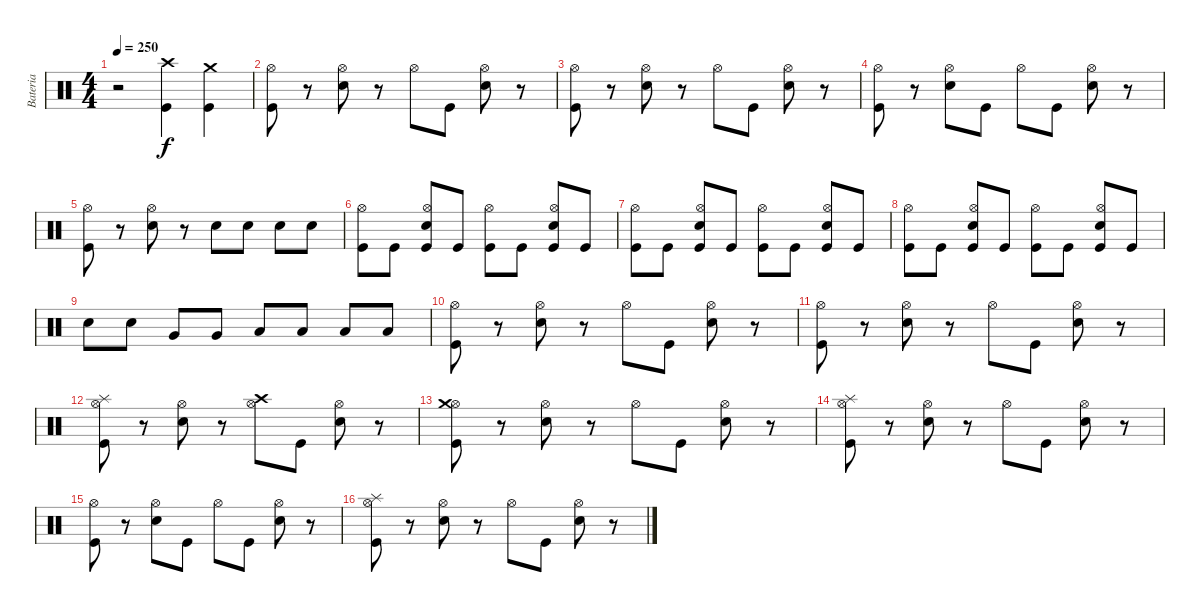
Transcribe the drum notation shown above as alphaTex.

\track ("Bateria" "Bateria") {instrument percussion}
\staff {score}
\articulation defaults
\ts (4 4)
\tempo 250
\clef neutral
\ks c
r.2{dy f} ("Kick (hit)" "Crash high (hit)").4 ("Kick (hit)" "Crash medium (hit)").4 |
("Kick (hit)" "Hi-Hat (open)").8 r.8 ("Electric Snare (hit)" "Hi-Hat (open)").8 r.8 "Hi-Hat (open)".8 "Kick (hit)".8 ("Electric Snare (hit)" "Hi-Hat (open)").8 r.8 |
("Kick (hit)" "Hi-Hat (open)").8 r.8 ("Electric Snare (hit)" "Hi-Hat (open)").8 r.8 "Hi-Hat (open)".8 "Kick (hit)".8 ("Electric Snare (hit)" "Hi-Hat (open)").8 r.8 |
("Kick (hit)" "Hi-Hat (open)").8 r.8 ("Electric Snare (hit)" "Hi-Hat (open)").8 "Kick (hit)".8 "Hi-Hat (open)".8 "Kick (hit)".8 ("Electric Snare (hit)" "Hi-Hat (open)").8 r.8 |
("Kick (hit)" "Hi-Hat (open)").8 r.8 ("Electric Snare (hit)" "Hi-Hat (open)").8 r.8 "Electric Snare (hit)".8 "Electric Snare (hit)".8 "Electric Snare (hit)".8 "Electric Snare (hit)".8 |
("Kick (hit)" "Hi-Hat (open)").8 "Kick (hit)".8 ("Kick (hit)" "Electric Snare (hit)" "Hi-Hat (open)").8 "Kick (hit)".8 ("Kick (hit)" "Hi-Hat (open)").8 "Kick (hit)".8 ("Kick (hit)" "Electric Snare (hit)" "Hi-Hat (open)").8 "Kick (hit)".8 |
("Kick (hit)" "Hi-Hat (open)").8 "Kick (hit)".8 ("Kick (hit)" "Electric Snare (hit)" "Hi-Hat (open)").8 "Kick (hit)".8 ("Kick (hit)" "Hi-Hat (open)").8 "Kick (hit)".8 ("Kick (hit)" "Electric Snare (hit)" "Hi-Hat (open)").8 "Kick (hit)".8 |
("Kick (hit)" "Hi-Hat (open)").8 "Kick (hit)".8 ("Kick (hit)" "Electric Snare (hit)" "Hi-Hat (open)").8 "Kick (hit)".8 ("Kick (hit)" "Hi-Hat (open)").8 "Kick (hit)".8 ("Kick (hit)" "Electric Snare (hit)" "Hi-Hat (open)").8 "Kick (hit)".8 |
"Electric Snare (hit)".8 "Electric Snare (hit)".8 "Very Low Tom (hit)".8 "Very Low Tom (hit)".8 "Low Floor Tom (hit)".8 "Low Floor Tom (hit)".8 "Low Tom (hit)".8 "Low Tom (hit)".8 |
("Kick (hit)" "Hi-Hat (open)").8 r.8 ("Electric Snare (hit)" "Hi-Hat (open)").8 r.8 "Hi-Hat (open)".8 "Kick (hit)".8 ("Electric Snare (hit)" "Hi-Hat (open)").8 r.8 |
("Kick (hit)" "Hi-Hat (open)").8 r.8 ("Electric Snare (hit)" "Hi-Hat (open)").8 r.8 "Hi-Hat (open)".8 "Kick (hit)".8 ("Electric Snare (hit)" "Hi-Hat (open)").8 r.8 |
("Kick (hit)" "Hi-Hat (open)" "Splash (hit)").8 r.8 ("Electric Snare (hit)" "Hi-Hat (open)").8 r.8 ("Hi-Hat (open)" "Crash high (hit)").8 "Kick (hit)".8 ("Electric Snare (hit)" "Hi-Hat (open)").8 r.8 |
("Kick (hit)" "Hi-Hat (open)" "Crash medium (hit)").8 r.8 ("Electric Snare (hit)" "Hi-Hat (open)").8 r.8 "Hi-Hat (open)".8 "Kick (hit)".8 ("Electric Snare (hit)" "Hi-Hat (open)").8 r.8 |
("Kick (hit)" "Hi-Hat (open)" "Splash (hit)").8 r.8 ("Electric Snare (hit)" "Hi-Hat (open)").8 r.8 "Hi-Hat (open)".8 "Kick (hit)".8 ("Electric Snare (hit)" "Hi-Hat (open)").8 r.8 |
("Kick (hit)" "Hi-Hat (open)").8 r.8 ("Electric Snare (hit)" "Hi-Hat (open)").8 "Kick (hit)".8 "Hi-Hat (open)".8 "Kick (hit)".8 ("Electric Snare (hit)" "Hi-Hat (open)").8 r.8 |
("Kick (hit)" "Hi-Hat (open)" "Splash (hit)").8 r.8 ("Electric Snare (hit)" "Hi-Hat (open)").8 r.8 "Hi-Hat (open)".8 "Kick (hit)".8 ("Electric Snare (hit)" "Hi-Hat (open)").8 r.8
